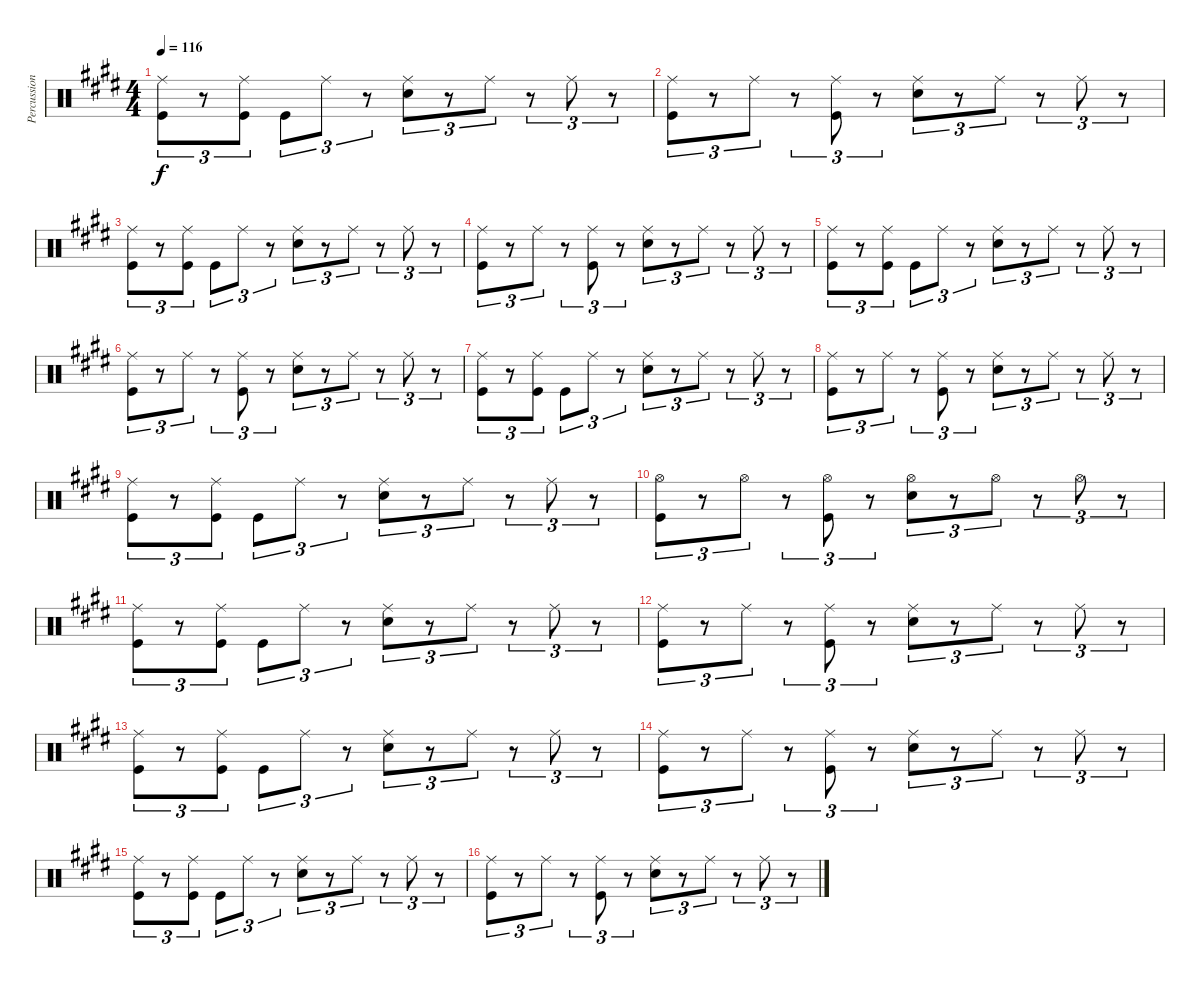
\track ("Percussion" "Percussion") {instrument percussion}
\staff {score}
\articulation defaults
\ts (4 4)
\tempo 116
\clef neutral
\ks c#minor
("Ride (middle)" "Kick (hit)").8{tu (3 2) dy f} r.8{tu (3 2)} ("Ride (middle)" "Kick (hit)").8{tu (3 2)} "Kick (hit)".8{tu (3 2)} "Ride (middle)".8{tu (3 2)} r.8{tu (3 2)} ("Snare (hit) 2" "Ride (middle)").8{tu (3 2)} r.8{tu (3 2)} "Ride (middle)".8{tu (3 2)} r.8{tu (3 2)} "Ride (middle)".8{tu (3 2)} r.8{tu (3 2)} |
("Ride (middle)" "Kick (hit)").8{tu (3 2)} r.8{tu (3 2)} "Ride (middle)".8{tu (3 2)} r.8{tu (3 2)} ("Ride (middle)" "Kick (hit)").8{tu (3 2)} r.8{tu (3 2)} ("Snare (hit) 2" "Ride (middle)").8{tu (3 2)} r.8{tu (3 2)} "Ride (middle)".8{tu (3 2)} r.8{tu (3 2)} "Ride (middle)".8{tu (3 2)} r.8{tu (3 2)} |
("Ride (middle)" "Kick (hit)").8{tu (3 2)} r.8{tu (3 2)} ("Ride (middle)" "Kick (hit)").8{tu (3 2)} "Kick (hit)".8{tu (3 2)} "Ride (middle)".8{tu (3 2)} r.8{tu (3 2)} ("Snare (hit) 2" "Ride (middle)").8{tu (3 2)} r.8{tu (3 2)} "Ride (middle)".8{tu (3 2)} r.8{tu (3 2)} "Ride (middle)".8{tu (3 2)} r.8{tu (3 2)} |
("Ride (middle)" "Kick (hit)").8{tu (3 2)} r.8{tu (3 2)} "Ride (middle)".8{tu (3 2)} r.8{tu (3 2)} ("Ride (middle)" "Kick (hit)").8{tu (3 2)} r.8{tu (3 2)} ("Snare (hit) 2" "Ride (middle)").8{tu (3 2)} r.8{tu (3 2)} "Ride (middle)".8{tu (3 2)} r.8{tu (3 2)} "Ride (middle)".8{tu (3 2)} r.8{tu (3 2)} |
("Ride (middle)" "Kick (hit)").8{tu (3 2)} r.8{tu (3 2)} ("Ride (middle)" "Kick (hit)").8{tu (3 2)} "Kick (hit)".8{tu (3 2)} "Ride (middle)".8{tu (3 2)} r.8{tu (3 2)} ("Snare (hit) 2" "Ride (middle)").8{tu (3 2)} r.8{tu (3 2)} "Ride (middle)".8{tu (3 2)} r.8{tu (3 2)} "Ride (middle)".8{tu (3 2)} r.8{tu (3 2)} |
("Ride (middle)" "Kick (hit)").8{tu (3 2)} r.8{tu (3 2)} "Ride (middle)".8{tu (3 2)} r.8{tu (3 2)} ("Ride (middle)" "Kick (hit)").8{tu (3 2)} r.8{tu (3 2)} ("Snare (hit) 2" "Ride (middle)").8{tu (3 2)} r.8{tu (3 2)} "Ride (middle)".8{tu (3 2)} r.8{tu (3 2)} "Ride (middle)".8{tu (3 2)} r.8{tu (3 2)} |
("Ride (middle)" "Kick (hit)").8{tu (3 2)} r.8{tu (3 2)} ("Ride (middle)" "Kick (hit)").8{tu (3 2)} "Kick (hit)".8{tu (3 2)} "Ride (middle)".8{tu (3 2)} r.8{tu (3 2)} ("Snare (hit) 2" "Ride (middle)").8{tu (3 2)} r.8{tu (3 2)} "Ride (middle)".8{tu (3 2)} r.8{tu (3 2)} "Ride (middle)".8{tu (3 2)} r.8{tu (3 2)} |
("Ride (middle)" "Kick (hit)").8{tu (3 2)} r.8{tu (3 2)} "Ride (middle)".8{tu (3 2)} r.8{tu (3 2)} ("Ride (middle)" "Kick (hit)").8{tu (3 2)} r.8{tu (3 2)} ("Snare (hit) 2" "Ride (middle)").8{tu (3 2)} r.8{tu (3 2)} "Ride (middle)".8{tu (3 2)} r.8{tu (3 2)} "Ride (middle)".8{tu (3 2)} r.8{tu (3 2)} |
("Ride (middle)" "Kick (hit)").8{tu (3 2)} r.8{tu (3 2)} ("Ride (middle)" "Kick (hit)").8{tu (3 2)} "Kick (hit)".8{tu (3 2)} "Ride (middle)".8{tu (3 2)} r.8{tu (3 2)} ("Snare (hit) 2" "Ride (middle)").8{tu (3 2)} r.8{tu (3 2)} "Ride (middle)".8{tu (3 2)} r.8{tu (3 2)} "Ride (middle)".8{tu (3 2)} r.8{tu (3 2)} |
("Hi-Hat (open)" "Kick (hit)").8{tu (3 2)} r.8{tu (3 2)} "Hi-Hat (open)".8{tu (3 2)} r.8{tu (3 2)} ("Hi-Hat (open)" "Kick (hit)").8{tu (3 2)} r.8{tu (3 2)} ("Snare (hit) 2" "Hi-Hat (open)").8{tu (3 2)} r.8{tu (3 2)} "Hi-Hat (open)".8{tu (3 2)} r.8{tu (3 2)} "Hi-Hat (open)".8{tu (3 2)} r.8{tu (3 2)} |
("Ride (middle)" "Kick (hit)").8{tu (3 2)} r.8{tu (3 2)} ("Ride (middle)" "Kick (hit)").8{tu (3 2)} "Kick (hit)".8{tu (3 2)} "Ride (middle)".8{tu (3 2)} r.8{tu (3 2)} ("Snare (hit) 2" "Ride (middle)").8{tu (3 2)} r.8{tu (3 2)} "Ride (middle)".8{tu (3 2)} r.8{tu (3 2)} "Ride (middle)".8{tu (3 2)} r.8{tu (3 2)} |
("Ride (middle)" "Kick (hit)").8{tu (3 2)} r.8{tu (3 2)} "Ride (middle)".8{tu (3 2)} r.8{tu (3 2)} ("Ride (middle)" "Kick (hit)").8{tu (3 2)} r.8{tu (3 2)} ("Snare (hit) 2" "Ride (middle)").8{tu (3 2)} r.8{tu (3 2)} "Ride (middle)".8{tu (3 2)} r.8{tu (3 2)} "Ride (middle)".8{tu (3 2)} r.8{tu (3 2)} |
("Ride (middle)" "Kick (hit)").8{tu (3 2)} r.8{tu (3 2)} ("Ride (middle)" "Kick (hit)").8{tu (3 2)} "Kick (hit)".8{tu (3 2)} "Ride (middle)".8{tu (3 2)} r.8{tu (3 2)} ("Snare (hit) 2" "Ride (middle)").8{tu (3 2)} r.8{tu (3 2)} "Ride (middle)".8{tu (3 2)} r.8{tu (3 2)} "Ride (middle)".8{tu (3 2)} r.8{tu (3 2)} |
("Ride (middle)" "Kick (hit)").8{tu (3 2)} r.8{tu (3 2)} "Ride (middle)".8{tu (3 2)} r.8{tu (3 2)} ("Ride (middle)" "Kick (hit)").8{tu (3 2)} r.8{tu (3 2)} ("Snare (hit) 2" "Ride (middle)").8{tu (3 2)} r.8{tu (3 2)} "Ride (middle)".8{tu (3 2)} r.8{tu (3 2)} "Ride (middle)".8{tu (3 2)} r.8{tu (3 2)} |
("Ride (middle)" "Kick (hit)").8{tu (3 2)} r.8{tu (3 2)} ("Ride (middle)" "Kick (hit)").8{tu (3 2)} "Kick (hit)".8{tu (3 2)} "Ride (middle)".8{tu (3 2)} r.8{tu (3 2)} ("Snare (hit) 2" "Ride (middle)").8{tu (3 2)} r.8{tu (3 2)} "Ride (middle)".8{tu (3 2)} r.8{tu (3 2)} "Ride (middle)".8{tu (3 2)} r.8{tu (3 2)} |
("Ride (middle)" "Kick (hit)").8{tu (3 2)} r.8{tu (3 2)} "Ride (middle)".8{tu (3 2)} r.8{tu (3 2)} ("Ride (middle)" "Kick (hit)").8{tu (3 2)} r.8{tu (3 2)} ("Snare (hit) 2" "Ride (middle)").8{tu (3 2)} r.8{tu (3 2)} "Ride (middle)".8{tu (3 2)} r.8{tu (3 2)} "Ride (middle)".8{tu (3 2)} r.8{tu (3 2)}
